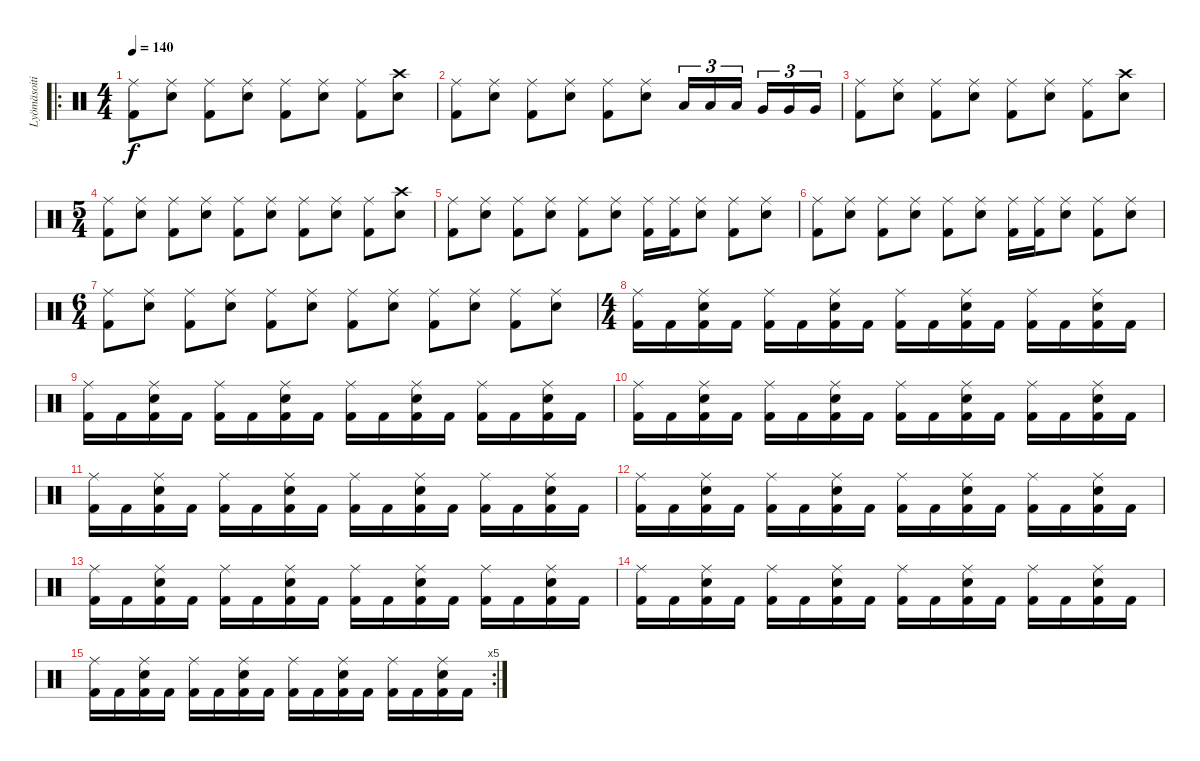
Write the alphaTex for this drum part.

\track ("Lyömäsoitin" "Lyömäsoiti") {instrument percussion}
\staff {score}
\articulation defaults
\ro
\ts (4 4)
\tempo 140
\clef neutral
\ks c
("Ride (middle)" "Kick (hit) 2").8{dy f} ("Ride (middle)" "Snare (hit) 2").8 ("Ride (middle)" "Kick (hit) 2").8 ("Ride (middle)" "Snare (hit) 2").8 ("Ride (middle)" "Kick (hit) 2").8 ("Ride (middle)" "Snare (hit) 2").8 ("Ride (middle)" "Kick (hit) 2").8 ("Crash high (hit)" "Snare (hit) 2").8 |
("Ride (middle)" "Kick (hit) 2").8 ("Ride (middle)" "Snare (hit) 2").8 ("Ride (middle)" "Kick (hit) 2").8 ("Ride (middle)" "Snare (hit) 2").8 ("Ride (middle)" "Kick (hit) 2").8 ("Ride (middle)" "Snare (hit) 2").8 "Low Tom (hit)".16{tu (3 2)} "Low Tom (hit)".16{tu (3 2)} "Low Tom (hit)".16{tu (3 2)} "Very Low Tom (hit)".16{tu (3 2)} "Very Low Tom (hit)".16{tu (3 2)} "Very Low Tom (hit)".16{tu (3 2)} |
("Ride (middle)" "Kick (hit) 2").8 ("Ride (middle)" "Snare (hit) 2").8 ("Ride (middle)" "Kick (hit) 2").8 ("Ride (middle)" "Snare (hit) 2").8 ("Ride (middle)" "Kick (hit) 2").8 ("Ride (middle)" "Snare (hit) 2").8 ("Ride (middle)" "Kick (hit) 2").8 ("Crash high (hit)" "Snare (hit) 2").8 |
\ts (5 4)
("Ride (middle)" "Kick (hit) 2").8 ("Ride (middle)" "Snare (hit) 2").8 ("Ride (middle)" "Kick (hit) 2").8 ("Ride (middle)" "Snare (hit) 2").8 ("Ride (middle)" "Kick (hit) 2").8 ("Ride (middle)" "Snare (hit) 2").8 ("Ride (middle)" "Kick (hit) 2").8 ("Ride (middle)" "Snare (hit) 2").8 ("Ride (middle)" "Kick (hit) 2").8 ("Crash high (hit)" "Snare (hit) 2").8 |
("Ride (middle)" "Kick (hit) 2").8 ("Ride (middle)" "Snare (hit) 2").8 ("Ride (middle)" "Kick (hit) 2").8 ("Ride (middle)" "Snare (hit) 2").8 ("Ride (middle)" "Kick (hit) 2").8 ("Ride (middle)" "Snare (hit) 2").8 ("Ride (middle)" "Kick (hit) 2").16 ("Ride (middle)" "Kick (hit) 2").16 ("Ride (middle)" "Snare (hit) 2").8 ("Ride (middle)" "Kick (hit) 2").8 ("Ride (middle)" "Snare (hit) 2").8 |
("Ride (middle)" "Kick (hit) 2").8 ("Ride (middle)" "Snare (hit) 2").8 ("Ride (middle)" "Kick (hit) 2").8 ("Ride (middle)" "Snare (hit) 2").8 ("Ride (middle)" "Kick (hit) 2").8 ("Ride (middle)" "Snare (hit) 2").8 ("Ride (middle)" "Kick (hit) 2").16 ("Ride (middle)" "Kick (hit) 2").16 ("Ride (middle)" "Snare (hit) 2").8 ("Ride (middle)" "Kick (hit) 2").8 ("Ride (middle)" "Snare (hit) 2").8 |
\ts (6 4)
("Ride (middle)" "Kick (hit) 2").8 ("Ride (middle)" "Snare (hit) 2").8 ("Ride (middle)" "Kick (hit) 2").8 ("Ride (middle)" "Snare (hit) 2").8 ("Ride (middle)" "Kick (hit) 2").8 ("Ride (middle)" "Snare (hit) 2").8 ("Ride (middle)" "Kick (hit) 2").8 ("Ride (middle)" "Snare (hit) 2").8 ("Ride (middle)" "Kick (hit) 2").8 ("Ride (middle)" "Snare (hit) 2").8 ("Ride (middle)" "Kick (hit) 2").8 ("Ride (middle)" "Snare (hit) 2").8 |
\ts (4 4)
("Ride (middle)" "Kick (hit) 2").16 "Kick (hit) 2".16 ("Ride (middle)" "Snare (hit) 2" "Kick (hit) 2").16 "Kick (hit) 2".16 ("Ride (middle)" "Kick (hit) 2").16 "Kick (hit) 2".16 ("Ride (middle)" "Snare (hit) 2" "Kick (hit) 2").16 "Kick (hit) 2".16 ("Ride (middle)" "Kick (hit) 2").16 "Kick (hit) 2".16 ("Ride (middle)" "Snare (hit) 2" "Kick (hit) 2").16 "Kick (hit) 2".16 ("Ride (middle)" "Kick (hit) 2").16 "Kick (hit) 2".16 ("Ride (middle)" "Snare (hit) 2" "Kick (hit) 2").16 "Kick (hit) 2".16 |
("Ride (middle)" "Kick (hit) 2").16 "Kick (hit) 2".16 ("Ride (middle)" "Snare (hit) 2" "Kick (hit) 2").16 "Kick (hit) 2".16 ("Ride (middle)" "Kick (hit) 2").16 "Kick (hit) 2".16 ("Ride (middle)" "Snare (hit) 2" "Kick (hit) 2").16 "Kick (hit) 2".16 ("Ride (middle)" "Kick (hit) 2").16 "Kick (hit) 2".16 ("Ride (middle)" "Snare (hit) 2" "Kick (hit) 2").16 "Kick (hit) 2".16 ("Ride (middle)" "Kick (hit) 2").16 "Kick (hit) 2".16 ("Ride (middle)" "Snare (hit) 2" "Kick (hit) 2").16 "Kick (hit) 2".16 |
("Ride (middle)" "Kick (hit) 2").16 "Kick (hit) 2".16 ("Ride (middle)" "Snare (hit) 2" "Kick (hit) 2").16 "Kick (hit) 2".16 ("Ride (middle)" "Kick (hit) 2").16 "Kick (hit) 2".16 ("Ride (middle)" "Snare (hit) 2" "Kick (hit) 2").16 "Kick (hit) 2".16 ("Ride (middle)" "Kick (hit) 2").16 "Kick (hit) 2".16 ("Ride (middle)" "Snare (hit) 2" "Kick (hit) 2").16 "Kick (hit) 2".16 ("Ride (middle)" "Kick (hit) 2").16 "Kick (hit) 2".16 ("Ride (middle)" "Snare (hit) 2" "Kick (hit) 2").16 "Kick (hit) 2".16 |
("Ride (middle)" "Kick (hit) 2").16 "Kick (hit) 2".16 ("Ride (middle)" "Snare (hit) 2" "Kick (hit) 2").16 "Kick (hit) 2".16 ("Ride (middle)" "Kick (hit) 2").16 "Kick (hit) 2".16 ("Ride (middle)" "Snare (hit) 2" "Kick (hit) 2").16 "Kick (hit) 2".16 ("Ride (middle)" "Kick (hit) 2").16 "Kick (hit) 2".16 ("Ride (middle)" "Snare (hit) 2" "Kick (hit) 2").16 "Kick (hit) 2".16 ("Ride (middle)" "Kick (hit) 2").16 "Kick (hit) 2".16 ("Ride (middle)" "Snare (hit) 2" "Kick (hit) 2").16 "Kick (hit) 2".16 |
("Ride (middle)" "Kick (hit) 2").16 "Kick (hit) 2".16 ("Ride (middle)" "Snare (hit) 2" "Kick (hit) 2").16 "Kick (hit) 2".16 ("Ride (middle)" "Kick (hit) 2").16 "Kick (hit) 2".16 ("Ride (middle)" "Snare (hit) 2" "Kick (hit) 2").16 "Kick (hit) 2".16 ("Ride (middle)" "Kick (hit) 2").16 "Kick (hit) 2".16 ("Ride (middle)" "Snare (hit) 2" "Kick (hit) 2").16 "Kick (hit) 2".16 ("Ride (middle)" "Kick (hit) 2").16 "Kick (hit) 2".16 ("Ride (middle)" "Snare (hit) 2" "Kick (hit) 2").16 "Kick (hit) 2".16 |
("Ride (middle)" "Kick (hit) 2").16 "Kick (hit) 2".16 ("Ride (middle)" "Snare (hit) 2" "Kick (hit) 2").16 "Kick (hit) 2".16 ("Ride (middle)" "Kick (hit) 2").16 "Kick (hit) 2".16 ("Ride (middle)" "Snare (hit) 2" "Kick (hit) 2").16 "Kick (hit) 2".16 ("Ride (middle)" "Kick (hit) 2").16 "Kick (hit) 2".16 ("Ride (middle)" "Snare (hit) 2" "Kick (hit) 2").16 "Kick (hit) 2".16 ("Ride (middle)" "Kick (hit) 2").16 "Kick (hit) 2".16 ("Ride (middle)" "Snare (hit) 2" "Kick (hit) 2").16 "Kick (hit) 2".16 |
("Ride (middle)" "Kick (hit) 2").16 "Kick (hit) 2".16 ("Ride (middle)" "Snare (hit) 2" "Kick (hit) 2").16 "Kick (hit) 2".16 ("Ride (middle)" "Kick (hit) 2").16 "Kick (hit) 2".16 ("Ride (middle)" "Snare (hit) 2" "Kick (hit) 2").16 "Kick (hit) 2".16 ("Ride (middle)" "Kick (hit) 2").16 "Kick (hit) 2".16 ("Ride (middle)" "Snare (hit) 2" "Kick (hit) 2").16 "Kick (hit) 2".16 ("Ride (middle)" "Kick (hit) 2").16 "Kick (hit) 2".16 ("Ride (middle)" "Snare (hit) 2" "Kick (hit) 2").16 "Kick (hit) 2".16 |
\rc 5
("Ride (middle)" "Kick (hit) 2").16 "Kick (hit) 2".16 ("Ride (middle)" "Snare (hit) 2" "Kick (hit) 2").16 "Kick (hit) 2".16 ("Ride (middle)" "Kick (hit) 2").16 "Kick (hit) 2".16 ("Ride (middle)" "Snare (hit) 2" "Kick (hit) 2").16 "Kick (hit) 2".16 ("Ride (middle)" "Kick (hit) 2").16 "Kick (hit) 2".16 ("Ride (middle)" "Snare (hit) 2" "Kick (hit) 2").16 "Kick (hit) 2".16 ("Ride (middle)" "Kick (hit) 2").16 "Kick (hit) 2".16 ("Ride (middle)" "Snare (hit) 2" "Kick (hit) 2").16 "Kick (hit) 2".16
